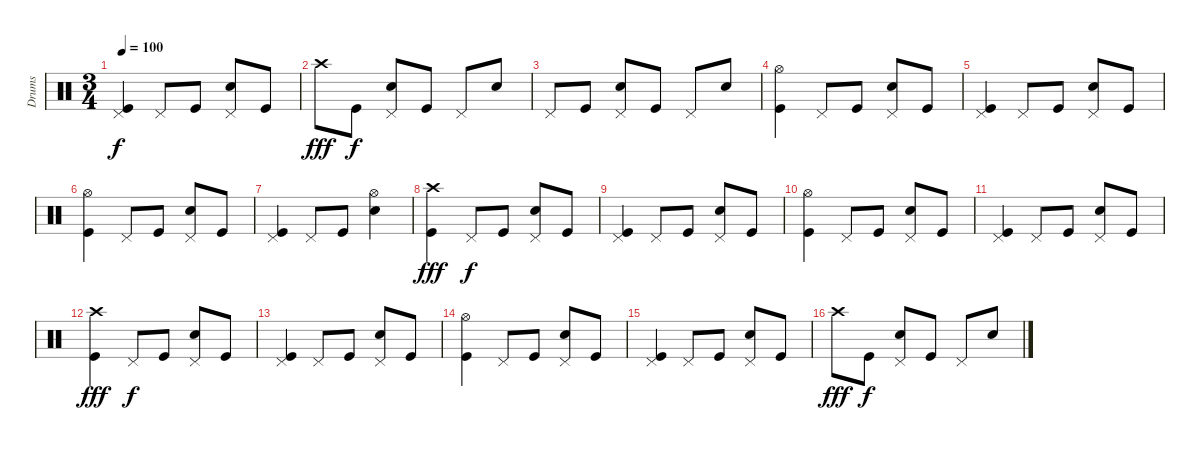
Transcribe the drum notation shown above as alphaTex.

\track ("Drums" "Drums") {instrument percussion}
\staff {score}
\articulation defaults
\ts (3 4)
\tempo 100
\clef neutral
\ks c
("Pedal Hi-Hat (hit)" "Kick (hit)").4{dy f} "Pedal Hi-Hat (hit)".8 "Kick (hit)".8 ("Pedal Hi-Hat (hit)" "Snare (hit) 2").8 "Kick (hit)".8 |
"Crash high (hit)".8{dy fff} "Kick (hit)".8{dy f} ("Pedal Hi-Hat (hit)" "Snare (hit) 2").8 "Kick (hit)".8 "Pedal Hi-Hat (hit)".8 "Snare (hit) 2".8 |
"Pedal Hi-Hat (hit)".8 "Kick (hit)".8 ("Pedal Hi-Hat (hit)" "Snare (hit) 2").8 "Kick (hit)".8 "Pedal Hi-Hat (hit)".8 "Snare (hit) 2".8 |
("Hi-Hat (open)" "Kick (hit)").4 "Pedal Hi-Hat (hit)".8 "Kick (hit)".8 ("Pedal Hi-Hat (hit)" "Snare (hit) 2").8 "Kick (hit)".8 |
("Pedal Hi-Hat (hit)" "Kick (hit)").4 "Pedal Hi-Hat (hit)".8 "Kick (hit)".8 ("Pedal Hi-Hat (hit)" "Snare (hit) 2").8 "Kick (hit)".8 |
("Hi-Hat (open)" "Kick (hit)").4 "Pedal Hi-Hat (hit)".8 "Kick (hit)".8 ("Pedal Hi-Hat (hit)" "Snare (hit) 2").8 "Kick (hit)".8 |
("Pedal Hi-Hat (hit)" "Kick (hit)").4 "Pedal Hi-Hat (hit)".8 "Kick (hit)".8 ("Hi-Hat (open)" "Snare (hit) 2").4 |
("Crash high (hit)" "Kick (hit)").4{dy fff} "Pedal Hi-Hat (hit)".8{dy f} "Kick (hit)".8 ("Pedal Hi-Hat (hit)" "Snare (hit) 2").8 "Kick (hit)".8 |
("Pedal Hi-Hat (hit)" "Kick (hit)").4 "Pedal Hi-Hat (hit)".8 "Kick (hit)".8 ("Pedal Hi-Hat (hit)" "Snare (hit) 2").8 "Kick (hit)".8 |
("Hi-Hat (open)" "Kick (hit)").4 "Pedal Hi-Hat (hit)".8 "Kick (hit)".8 ("Pedal Hi-Hat (hit)" "Snare (hit) 2").8 "Kick (hit)".8 |
("Pedal Hi-Hat (hit)" "Kick (hit)").4 "Pedal Hi-Hat (hit)".8 "Kick (hit)".8 ("Pedal Hi-Hat (hit)" "Snare (hit) 2").8 "Kick (hit)".8 |
("Crash high (hit)" "Kick (hit)").4{dy fff} "Pedal Hi-Hat (hit)".8{dy f} "Kick (hit)".8 ("Pedal Hi-Hat (hit)" "Snare (hit) 2").8 "Kick (hit)".8 |
("Pedal Hi-Hat (hit)" "Kick (hit)").4 "Pedal Hi-Hat (hit)".8 "Kick (hit)".8 ("Pedal Hi-Hat (hit)" "Snare (hit) 2").8 "Kick (hit)".8 |
("Hi-Hat (open)" "Kick (hit)").4 "Pedal Hi-Hat (hit)".8 "Kick (hit)".8 ("Pedal Hi-Hat (hit)" "Snare (hit) 2").8 "Kick (hit)".8 |
("Pedal Hi-Hat (hit)" "Kick (hit)").4 "Pedal Hi-Hat (hit)".8 "Kick (hit)".8 ("Pedal Hi-Hat (hit)" "Snare (hit) 2").8 "Kick (hit)".8 |
"Crash high (hit)".8{dy fff} "Kick (hit)".8{dy f} ("Pedal Hi-Hat (hit)" "Snare (hit) 2").8 "Kick (hit)".8 "Pedal Hi-Hat (hit)".8 "Snare (hit) 2".8
